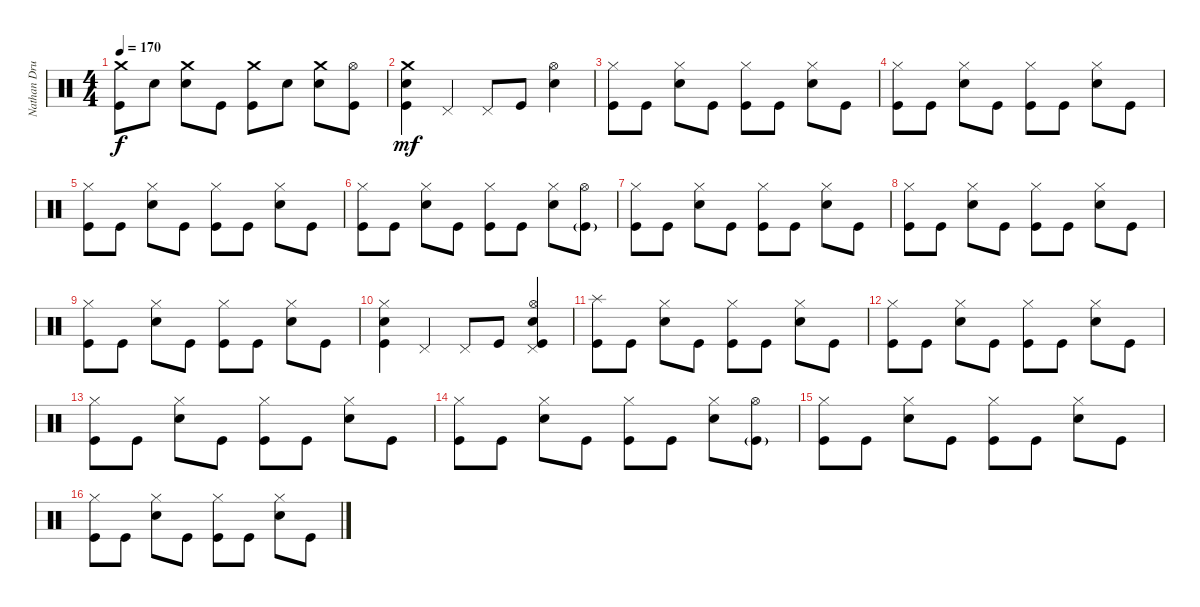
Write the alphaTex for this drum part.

\track ("Nathan Drum Programming" "Nathan Dru") {instrument percussion}
\staff {score}
\articulation defaults
\ts (4 4)
\tempo 170
\clef neutral
\ks c
("Crash medium (hit)" "Kick (hit)").8{dy f} "Snare (hit) 2".8 ("Crash medium (hit)" "Snare (hit) 2").8 "Kick (hit)".8 ("Crash medium (hit)" "Kick (hit)").8 "Snare (hit) 2".8 ("Crash medium (hit)" "Snare (hit) 2").8 ("Kick (hit)" "Hi-Hat (open)").8 |
("Crash medium (hit)" "Kick (hit)" "Snare (hit) 2").4{dy mf} "Pedal Hi-Hat (hit)".4 "Pedal Hi-Hat (hit)".8 "Kick (hit)".8 ("Snare (hit) 2" "Hi-Hat (open)").4 |
("Hi-Hat (closed)" "Kick (hit)").8 "Kick (hit)".8 ("Hi-Hat (closed)" "Snare (hit) 2").8 "Kick (hit)".8 ("Hi-Hat (closed)" "Kick (hit)").8 "Kick (hit)".8 ("Hi-Hat (closed)" "Snare (hit) 2").8 "Kick (hit)".8 |
("Hi-Hat (closed)" "Kick (hit)").8 "Kick (hit)".8 ("Hi-Hat (closed)" "Snare (hit) 2").8 "Kick (hit)".8 ("Hi-Hat (closed)" "Kick (hit)").8 "Kick (hit)".8 ("Hi-Hat (closed)" "Snare (hit) 2").8 "Kick (hit)".8 |
("Hi-Hat (closed)" "Kick (hit)").8 "Kick (hit)".8 ("Hi-Hat (closed)" "Snare (hit) 2").8 "Kick (hit)".8 ("Hi-Hat (closed)" "Kick (hit)").8 "Kick (hit)".8 ("Hi-Hat (closed)" "Snare (hit) 2").8 "Kick (hit)".8 |
("Hi-Hat (closed)" "Kick (hit)").8 "Kick (hit)".8 ("Hi-Hat (closed)" "Snare (hit) 2").8 "Kick (hit)".8 ("Hi-Hat (closed)" "Kick (hit)").8 "Kick (hit)".8 ("Hi-Hat (closed)" "Snare (hit) 2").8 ("Hi-Hat (open)" "Kick (hit)"{g}).8 |
("Hi-Hat (closed)" "Kick (hit)").8 "Kick (hit)".8 ("Hi-Hat (closed)" "Snare (hit) 2").8 "Kick (hit)".8 ("Hi-Hat (closed)" "Kick (hit)").8 "Kick (hit)".8 ("Hi-Hat (closed)" "Snare (hit) 2").8 "Kick (hit)".8 |
("Hi-Hat (closed)" "Kick (hit)").8 "Kick (hit)".8 ("Hi-Hat (closed)" "Snare (hit) 2").8 "Kick (hit)".8 ("Hi-Hat (closed)" "Kick (hit)").8 "Kick (hit)".8 ("Hi-Hat (closed)" "Snare (hit) 2").8 "Kick (hit)".8 |
("Hi-Hat (closed)" "Kick (hit)").8 "Kick (hit)".8 ("Hi-Hat (closed)" "Snare (hit) 2").8 "Kick (hit)".8 ("Hi-Hat (closed)" "Kick (hit)").8 "Kick (hit)".8 ("Hi-Hat (closed)" "Snare (hit) 2").8 "Kick (hit)".8 |
("Hi-Hat (closed)" "Kick (hit)" "Snare (hit) 2").4 "Pedal Hi-Hat (hit)".4 "Pedal Hi-Hat (hit)".8 "Kick (hit)".8 ("Pedal Hi-Hat (hit)" "Snare (hit) 2" "Kick (hit)" "Hi-Hat (open)").4 |
("Kick (hit)" "Splash (hit)").8 "Kick (hit)".8 ("Hi-Hat (closed)" "Snare (hit) 2").8 "Kick (hit)".8 ("Hi-Hat (closed)" "Kick (hit)").8 "Kick (hit)".8 ("Hi-Hat (closed)" "Snare (hit) 2").8 "Kick (hit)".8 |
("Hi-Hat (closed)" "Kick (hit)").8 "Kick (hit)".8 ("Hi-Hat (closed)" "Snare (hit) 2").8 "Kick (hit)".8 ("Hi-Hat (closed)" "Kick (hit)").8 "Kick (hit)".8 ("Hi-Hat (closed)" "Snare (hit) 2").8 "Kick (hit)".8 |
("Hi-Hat (closed)" "Kick (hit)").8 "Kick (hit)".8 ("Hi-Hat (closed)" "Snare (hit) 2").8 "Kick (hit)".8 ("Hi-Hat (closed)" "Kick (hit)").8 "Kick (hit)".8 ("Hi-Hat (closed)" "Snare (hit) 2").8 "Kick (hit)".8 |
("Hi-Hat (closed)" "Kick (hit)").8 "Kick (hit)".8 ("Hi-Hat (closed)" "Snare (hit) 2").8 "Kick (hit)".8 ("Hi-Hat (closed)" "Kick (hit)").8 "Kick (hit)".8 ("Hi-Hat (closed)" "Snare (hit) 2").8 ("Hi-Hat (open)" "Kick (hit)"{g}).8 |
("Hi-Hat (closed)" "Kick (hit)").8 "Kick (hit)".8 ("Hi-Hat (closed)" "Snare (hit) 2").8 "Kick (hit)".8 ("Hi-Hat (closed)" "Kick (hit)").8 "Kick (hit)".8 ("Hi-Hat (closed)" "Snare (hit) 2").8 "Kick (hit)".8 |
("Hi-Hat (closed)" "Kick (hit)").8 "Kick (hit)".8 ("Hi-Hat (closed)" "Snare (hit) 2").8 "Kick (hit)".8 ("Hi-Hat (closed)" "Kick (hit)").8 "Kick (hit)".8 ("Hi-Hat (closed)" "Snare (hit) 2").8 "Kick (hit)".8
